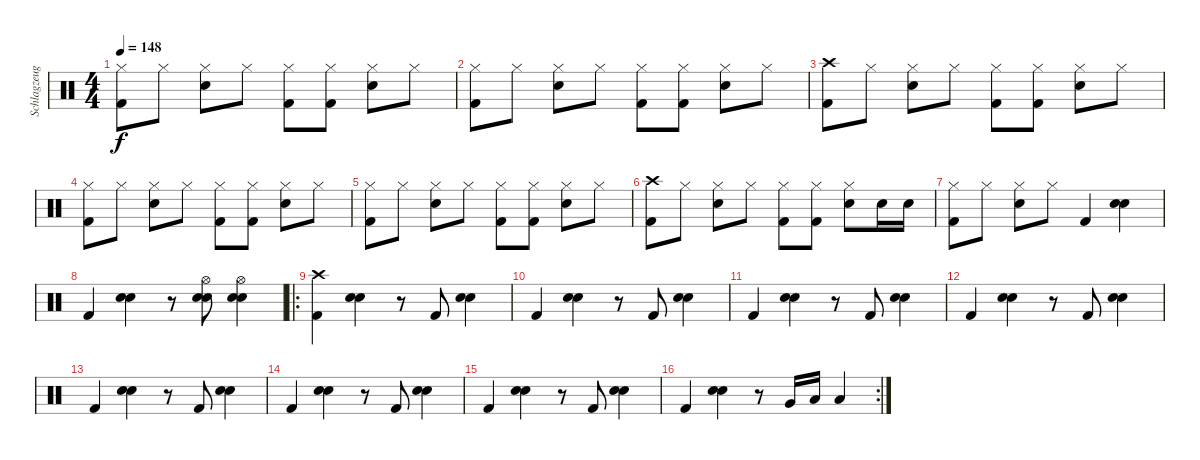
\track ("Schlagzeug" "Schlagzeug") {instrument percussion}
\staff {score}
\articulation defaults
\ts (4 4)
\tempo 148
\clef neutral
\ks c
("Hi-Hat (closed)" "Kick (hit) 2").8{dy f} "Hi-Hat (closed)".8 ("Hi-Hat (closed)" "Electric Snare (hit)").8 "Hi-Hat (closed)".8 ("Hi-Hat (closed)" "Kick (hit) 2").8 ("Hi-Hat (closed)" "Kick (hit) 2").8 ("Hi-Hat (closed)" "Electric Snare (hit)").8 "Hi-Hat (closed)".8 |
("Hi-Hat (closed)" "Kick (hit) 2").8 "Hi-Hat (closed)".8 ("Hi-Hat (closed)" "Electric Snare (hit)").8 "Hi-Hat (closed)".8 ("Hi-Hat (closed)" "Kick (hit) 2").8 ("Hi-Hat (closed)" "Kick (hit) 2").8 ("Hi-Hat (closed)" "Electric Snare (hit)").8 "Hi-Hat (closed)".8 |
("Crash high (hit)" "Kick (hit) 2").8 "Hi-Hat (closed)".8 ("Hi-Hat (closed)" "Electric Snare (hit)").8 "Hi-Hat (closed)".8 ("Hi-Hat (closed)" "Kick (hit) 2").8 ("Hi-Hat (closed)" "Kick (hit) 2").8 ("Hi-Hat (closed)" "Electric Snare (hit)").8 "Hi-Hat (closed)".8 |
("Hi-Hat (closed)" "Kick (hit) 2").8 "Hi-Hat (closed)".8 ("Hi-Hat (closed)" "Electric Snare (hit)").8 "Hi-Hat (closed)".8 ("Hi-Hat (closed)" "Kick (hit) 2").8 ("Hi-Hat (closed)" "Kick (hit) 2").8 ("Hi-Hat (closed)" "Electric Snare (hit)").8 "Hi-Hat (closed)".8 |
("Hi-Hat (closed)" "Kick (hit) 2").8 "Hi-Hat (closed)".8 ("Hi-Hat (closed)" "Electric Snare (hit)").8 "Hi-Hat (closed)".8 ("Hi-Hat (closed)" "Kick (hit) 2").8 ("Hi-Hat (closed)" "Kick (hit) 2").8 ("Hi-Hat (closed)" "Electric Snare (hit)").8 "Hi-Hat (closed)".8 |
("Crash high (hit)" "Kick (hit) 2").8 "Hi-Hat (closed)".8 ("Hi-Hat (closed)" "Electric Snare (hit)").8 "Hi-Hat (closed)".8 ("Hi-Hat (closed)" "Kick (hit) 2").8 ("Hi-Hat (closed)" "Kick (hit) 2").8 ("Hi-Hat (closed)" "Electric Snare (hit)").8 "Electric Snare (hit)".16 "Electric Snare (hit)".16 |
("Hi-Hat (closed)" "Kick (hit) 2").8 "Hi-Hat (closed)".8 ("Hi-Hat (closed)" "Electric Snare (hit)").8 "Hi-Hat (closed)".8 "Kick (hit) 2".4 ("Snare (hit) 2" "Electric Snare (hit)").4 |
"Kick (hit) 2".4 ("Snare (hit) 2" "Electric Snare (hit)").4 r.8 ("Hi-Hat (open)" "Snare (hit) 2" "Electric Snare (hit)").8 ("Hi-Hat (open)" "Snare (hit) 2" "Electric Snare (hit)").4 |
\ro
("Crash high (hit)" "Kick (hit) 2").4 ("Snare (hit) 2" "Electric Snare (hit)").4 r.8 "Kick (hit) 2".8 ("Snare (hit) 2" "Electric Snare (hit)").4 |
"Kick (hit) 2".4 ("Snare (hit) 2" "Electric Snare (hit)").4 r.8 "Kick (hit) 2".8 ("Snare (hit) 2" "Electric Snare (hit)").4 |
"Kick (hit) 2".4 ("Snare (hit) 2" "Electric Snare (hit)").4 r.8 "Kick (hit) 2".8 ("Snare (hit) 2" "Electric Snare (hit)").4 |
"Kick (hit) 2".4 ("Snare (hit) 2" "Electric Snare (hit)").4 r.8 "Kick (hit) 2".8 ("Snare (hit) 2" "Electric Snare (hit)").4 |
"Kick (hit) 2".4 ("Snare (hit) 2" "Electric Snare (hit)").4 r.8 "Kick (hit) 2".8 ("Snare (hit) 2" "Electric Snare (hit)").4 |
"Kick (hit) 2".4 ("Snare (hit) 2" "Electric Snare (hit)").4 r.8 "Kick (hit) 2".8 ("Snare (hit) 2" "Electric Snare (hit)").4 |
"Kick (hit) 2".4 ("Snare (hit) 2" "Electric Snare (hit)").4 r.8 "Kick (hit) 2".8 ("Snare (hit) 2" "Electric Snare (hit)").4 |
\rc 2 "Kick (hit) 2".4
("Snare (hit) 2" "Electric Snare (hit)").4 r.8 "Very Low Tom (hit)".16 "Low Tom (hit)".16 "Low Floor Tom (hit)".4
